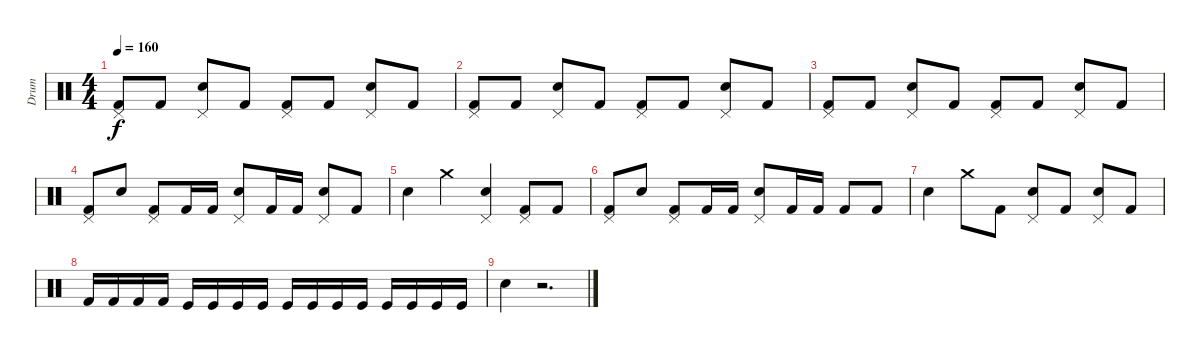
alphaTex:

\track ("Drum" "Drum") {instrument percussion}
\staff {score}
\articulation defaults
\ts (4 4)
\tempo 160
\clef neutral
\ks c
("Pedal Hi-Hat (hit)" "Kick (hit) 2").8{dy f} "Kick (hit) 2".8 ("Pedal Hi-Hat (hit)" "Snare (hit) 2").8 "Kick (hit) 2".8 ("Pedal Hi-Hat (hit)" "Kick (hit) 2").8 "Kick (hit) 2".8 ("Pedal Hi-Hat (hit)" "Snare (hit) 2").8 "Kick (hit) 2".8 |
("Pedal Hi-Hat (hit)" "Kick (hit) 2").8 "Kick (hit) 2".8 ("Pedal Hi-Hat (hit)" "Snare (hit) 2").8 "Kick (hit) 2".8 ("Pedal Hi-Hat (hit)" "Kick (hit) 2").8 "Kick (hit) 2".8 ("Pedal Hi-Hat (hit)" "Snare (hit) 2").8 "Kick (hit) 2".8 |
("Pedal Hi-Hat (hit)" "Kick (hit) 2").8 "Kick (hit) 2".8 ("Pedal Hi-Hat (hit)" "Snare (hit) 2").8 "Kick (hit) 2".8 ("Pedal Hi-Hat (hit)" "Kick (hit) 2").8 "Kick (hit) 2".8 ("Pedal Hi-Hat (hit)" "Snare (hit) 2").8 "Kick (hit) 2".8 |
("Pedal Hi-Hat (hit)" "Kick (hit) 2").8 "Snare (hit) 2".8 ("Pedal Hi-Hat (hit)" "Kick (hit) 2").8 "Kick (hit) 2".16 "Kick (hit) 2".16 ("Pedal Hi-Hat (hit)" "Snare (hit) 2").8 "Kick (hit) 2".16 "Kick (hit) 2".16 ("Pedal Hi-Hat (hit)" "Snare (hit) 2").8 "Kick (hit) 2".8 |
"Snare (hit) 2".4 "Crash medium (hit)".4 ("Pedal Hi-Hat (hit)" "Snare (hit) 2").4 ("Pedal Hi-Hat (hit)" "Kick (hit) 2").8 "Kick (hit) 2".8 |
("Pedal Hi-Hat (hit)" "Kick (hit) 2").8 "Snare (hit) 2".8 ("Pedal Hi-Hat (hit)" "Kick (hit) 2").8 "Kick (hit) 2".16 "Kick (hit) 2".16 ("Pedal Hi-Hat (hit)" "Snare (hit) 2").8 "Kick (hit) 2".16 "Kick (hit) 2".16 "Kick (hit) 2".8 "Kick (hit) 2".8 |
"Snare (hit) 2".4 "Crash medium (hit)".8 "Kick (hit) 2".8 ("Pedal Hi-Hat (hit)" "Snare (hit) 2").8 "Kick (hit) 2".8 ("Pedal Hi-Hat (hit)" "Snare (hit) 2").8 "Kick (hit) 2".8 |
"Kick (hit) 2".16 "Kick (hit) 2".16 "Kick (hit) 2".16 "Kick (hit) 2".16 "Kick (hit)".16 "Kick (hit)".16 "Kick (hit)".16 "Kick (hit)".16 "Kick (hit)".16 "Kick (hit)".16 "Kick (hit)".16 "Kick (hit)".16 "Kick (hit)".16 "Kick (hit)".16 "Kick (hit)".16 "Kick (hit)".16 |
"Snare (hit) 2".4 r.2{d}
